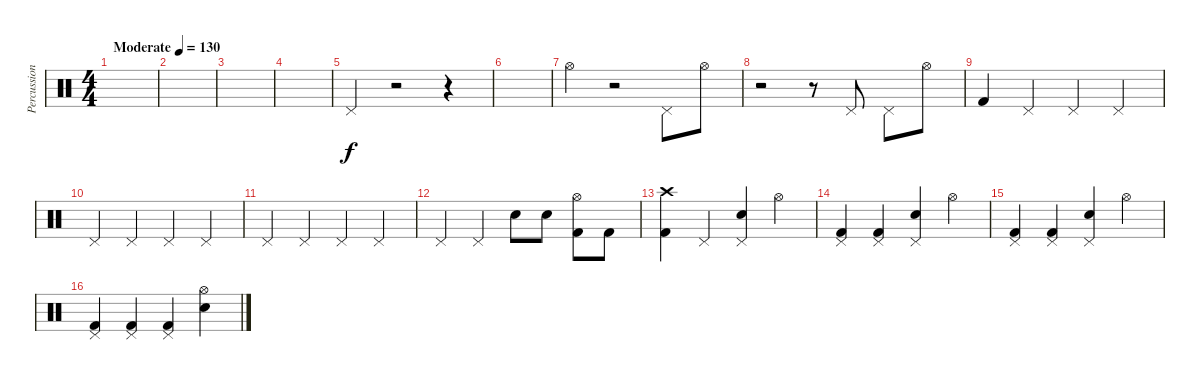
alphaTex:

\track ("Percussion" "Percussion") {instrument percussion}
\staff {score}
\articulation defaults
\ts (4 4)
\tempo (130 "Moderate")
\clef neutral
\ks c
|
|
|
|
"Pedal Hi-Hat (hit)".4 r.2 r.4 |
|
"Hi-Hat (open)".4 r.2 "Pedal Hi-Hat (hit)".8 "Hi-Hat (open)".8 |
r.2 r.8 "Pedal Hi-Hat (hit)".8 "Pedal Hi-Hat (hit)".8 "Hi-Hat (open)".8 |
"Kick (hit) 2".4 "Pedal Hi-Hat (hit)".4 "Pedal Hi-Hat (hit)".4 "Pedal Hi-Hat (hit)".4 |
"Pedal Hi-Hat (hit)".4 "Pedal Hi-Hat (hit)".4 "Pedal Hi-Hat (hit)".4 "Pedal Hi-Hat (hit)".4 |
"Pedal Hi-Hat (hit)".4 "Pedal Hi-Hat (hit)".4 "Pedal Hi-Hat (hit)".4 "Pedal Hi-Hat (hit)".4 |
"Pedal Hi-Hat (hit)".4 "Pedal Hi-Hat (hit)".4 "Electric Snare (hit)".8 "Electric Snare (hit)".8 ("Hi-Hat (open)" "Kick (hit) 2").8 "Kick (hit) 2".8 |
("Crash high (hit)" "Kick (hit) 2").4 "Pedal Hi-Hat (hit)".4 ("Pedal Hi-Hat (hit)" "Electric Snare (hit)").4 "Hi-Hat (open)".4 |
("Pedal Hi-Hat (hit)" "Kick (hit) 2").4 ("Pedal Hi-Hat (hit)" "Kick (hit) 2").4 ("Pedal Hi-Hat (hit)" "Electric Snare (hit)").4 "Hi-Hat (open)".4 |
("Pedal Hi-Hat (hit)" "Kick (hit) 2").4 ("Pedal Hi-Hat (hit)" "Kick (hit) 2").4 ("Pedal Hi-Hat (hit)" "Electric Snare (hit)").4 "Hi-Hat (open)".4 |
("Pedal Hi-Hat (hit)" "Kick (hit) 2").4 ("Pedal Hi-Hat (hit)" "Kick (hit) 2").4 ("Pedal Hi-Hat (hit)" "Kick (hit) 2").4 ("Hi-Hat (open)" "Electric Snare (hit)").4
